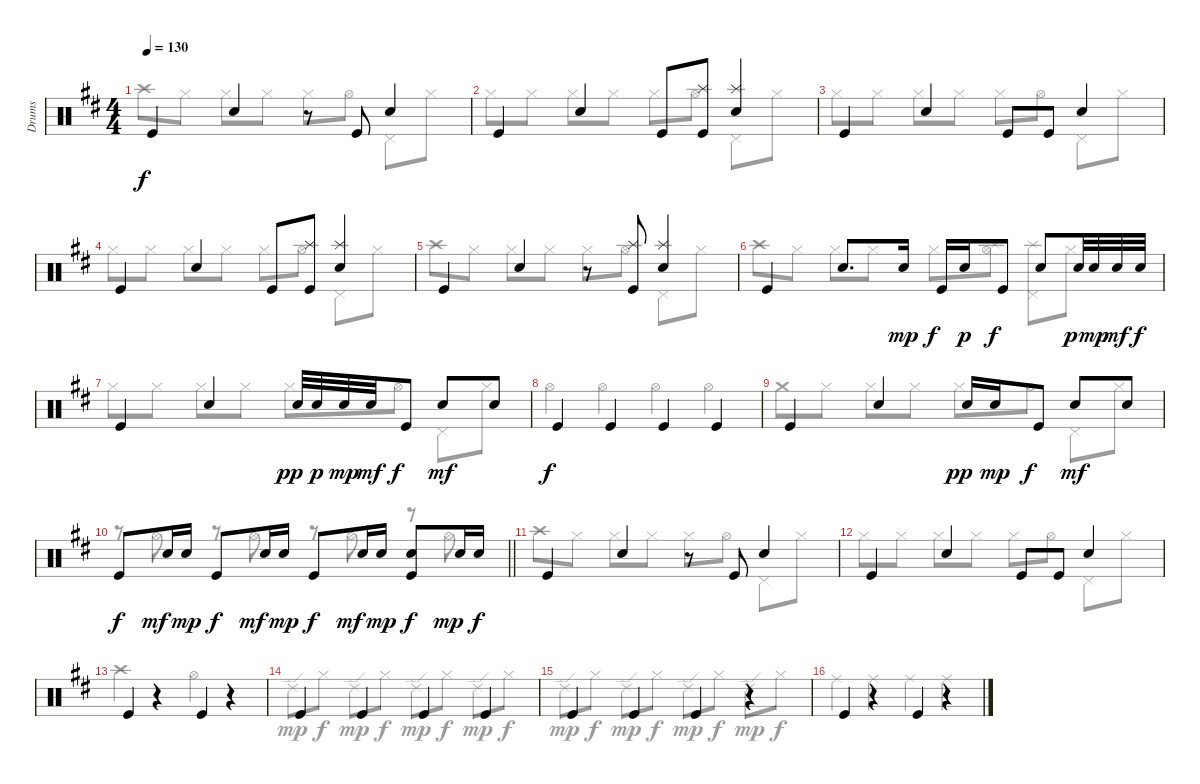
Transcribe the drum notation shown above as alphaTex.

\track ("Drums" "Drums") {instrument percussion}
\staff {score}
\articulation defaults
\voice
\ts (4 4)
\tempo 130
\clef neutral
\ks d "Kick (hit)".4{dy f} "Snare (hit) 2".4
r.8 "Kick (hit)".8 "Snare (hit) 2".4 |
"Kick (hit)".4 "Snare (hit) 2".4 "Kick (hit)".8 ("Splash (hit)" "Kick (hit)").8 ("Splash (hit)" "Snare (hit) 2").4 |
"Kick (hit)".4 "Snare (hit) 2".4 "Kick (hit)".8 "Kick (hit)".8 "Snare (hit) 2".4 |
"Kick (hit)".4 "Snare (hit) 2".4 "Kick (hit)".8 ("Splash (hit)" "Kick (hit)").8 ("Splash (hit)" "Snare (hit) 2").4 |
"Kick (hit)".4 "Snare (hit) 2".4 r.8 ("Splash (hit)" "Kick (hit)").8 ("Splash (hit)" "Snare (hit) 2").4 |
"Kick (hit)".4 "Snare (hit) 2".8{d} "Snare (hit) 2".16{dy mp} "Kick (hit)".16{dy f} "Snare (hit) 2".16{dy p} "Kick (hit)".8{dy f} "Snare (hit) 2".8 "Snare (hit) 2".32{dy p} "Snare (hit) 2".32{dy mp} "Snare (hit) 2".32{dy mf} "Snare (hit) 2".32{dy f} |
"Kick (hit)".4 "Snare (hit) 2".4 "Snare (hit) 2".32{dy pp} "Snare (hit) 2".32{dy p} "Snare (hit) 2".32{dy mp} "Snare (hit) 2".32{dy mf} "Kick (hit)".8{dy f} "Snare (hit) 2".8{dy mf} "Snare (hit) 2".8 |
"Kick (hit)".4{dy f} "Kick (hit)".4 "Kick (hit)".4 "Kick (hit)".4 |
"Kick (hit)".4 "Snare (hit) 2".4 "Snare (hit) 2".16{dy pp} "Snare (hit) 2".16{dy mp} "Kick (hit)".8{dy f} "Snare (hit) 2".8{dy mf} "Snare (hit) 2".8 |
\barLineRight lightlight "Kick (hit)".8{dy f} "Snare (hit) 2".16{dy mf} "Snare (hit) 2".16{dy mp} "Kick (hit)".8{dy f} "Snare (hit) 2".16{dy mf} "Snare (hit) 2".16{dy mp} "Kick (hit)".8{dy f} "Snare (hit) 2".16{dy mf} "Snare (hit) 2".16{dy mp}
("Snare (hit) 2" "Kick (hit)").8{dy f} "Snare (hit) 2".16{dy mp} "Snare (hit) 2".16{dy f} |
"Kick (hit)".4 "Snare (hit) 2".4 r.8 "Kick (hit)".8 "Snare (hit) 2".4 |
"Kick (hit)".4 "Snare (hit) 2".4 "Kick (hit)".8 "Kick (hit)".8 "Snare (hit) 2".4 |
"Kick (hit)".4 r.4 "Kick (hit)".4 r.4 |
"Kick (hit)".4 "Kick (hit)".4 "Kick (hit)".4 "Kick (hit)".4 |
"Kick (hit)".4 "Kick (hit)".4 "Kick (hit)".4 r.4 |
"Kick (hit)".4 r.4 "Kick (hit)".4 r.4
\voice
\clef neutral
\ottava regular
\simile none
\ks d "Crash high (hit)".8{dy f} "Hi-Hat (closed)".8 "Hi-Hat (closed)".8 "Hi-Hat (closed)".8 "Hi-Hat (closed)".8 "Hi-Hat (open)".8 "Pedal Hi-Hat (hit)".8 "Hi-Hat (closed)".8
|
"Hi-Hat (closed)".8 "Hi-Hat (closed)".8 "Hi-Hat (closed)".8 "Hi-Hat (closed)".8 "Hi-Hat (closed)".8 "Hi-Hat (open)".8 "Pedal Hi-Hat (hit)".8 "Hi-Hat (closed)".8 |
"Hi-Hat (closed)".8 "Hi-Hat (closed)".8 "Hi-Hat (closed)".8 "Hi-Hat (closed)".8 "Hi-Hat (closed)".8 "Hi-Hat (open)".8 "Pedal Hi-Hat (hit)".8 "Hi-Hat (closed)".8 |
"Hi-Hat (closed)".8 "Hi-Hat (closed)".8 "Hi-Hat (closed)".8 "Hi-Hat (closed)".8 "Hi-Hat (closed)".8 "Hi-Hat (open)".8 "Pedal Hi-Hat (hit)".8 "Hi-Hat (closed)".8 |
"Crash high (hit)".8 "Hi-Hat (closed)".8 "Hi-Hat (closed)".8 "Hi-Hat (closed)".8 "Hi-Hat (closed)".8 "Hi-Hat (open)".8 "Pedal Hi-Hat (hit)".8 "Hi-Hat (closed)".8 |
"Crash high (hit)".8 "Hi-Hat (closed)".8 "Hi-Hat (closed)".8 "Hi-Hat (closed)".8 "Hi-Hat (closed)".8 ("Hi-Hat (open)" "Splash (hit)").8 ("Pedal Hi-Hat (hit)" "Splash (hit)").8 "Hi-Hat (closed)".8 |
"Hi-Hat (closed)".8 "Hi-Hat (closed)".8 "Hi-Hat (closed)".8 "Hi-Hat (closed)".8 "Hi-Hat (closed)".8 "Hi-Hat (open)".8 "Pedal Hi-Hat (hit)".8 "Hi-Hat (closed)".8 |
"Hi-Hat (open)".4 "Hi-Hat (open)".4 "Hi-Hat (open)".4 "Hi-Hat (open)".4 |
"Crash medium (hit)".8 "Hi-Hat (closed)".8 "Hi-Hat (closed)".8 "Hi-Hat (closed)".8 "Hi-Hat (closed)".8 "Hi-Hat (open)".8 "Pedal Hi-Hat (hit)".8 "Hi-Hat (closed)".8 |
\barLineRight lightlight
r.8 "Hi-Hat (open)".8 r.8 "Hi-Hat (open)".8 r.8 "Hi-Hat (open)".8 r.8 "Hi-Hat (open)".8 |
"Crash high (hit)".8 "Hi-Hat (closed)".8 "Hi-Hat (closed)".8 "Hi-Hat (closed)".8 "Hi-Hat (closed)".8 "Hi-Hat (open)".8 "Pedal Hi-Hat (hit)".8 "Hi-Hat (closed)".8 |
"Hi-Hat (closed)".8 "Hi-Hat (closed)".8 "Hi-Hat (closed)".8 "Hi-Hat (closed)".8 "Hi-Hat (closed)".8 "Hi-Hat (open)".8 "Pedal Hi-Hat (hit)".8 "Hi-Hat (closed)".8 |
"Crash high (hit)".4 r.4 "Hi-Hat (open)".4 r.4 |
"Ride (edge) 2".8{dy mp} "Hi-Hat (closed)".8{dy f} "Ride (edge) 2".8{dy mp} "Hi-Hat (closed)".8{dy f} "Ride (edge) 2".8{dy mp} "Hi-Hat (closed)".8{dy f} "Ride (edge) 2".8{dy mp} "Hi-Hat (closed)".8{dy f} |
"Ride (edge) 2".8{dy mp} "Hi-Hat (closed)".8{dy f} "Ride (edge) 2".8{dy mp} "Hi-Hat (closed)".8{dy f} "Ride (edge) 2".8{dy mp} "Hi-Hat (closed)".8{dy f} "Ride (edge) 2".8{dy mp} "Hi-Hat (closed)".8{dy f} |
"Ride (middle)".4 "Ride (middle)".4 "Ride (middle)".4 "Ride (middle)".4
